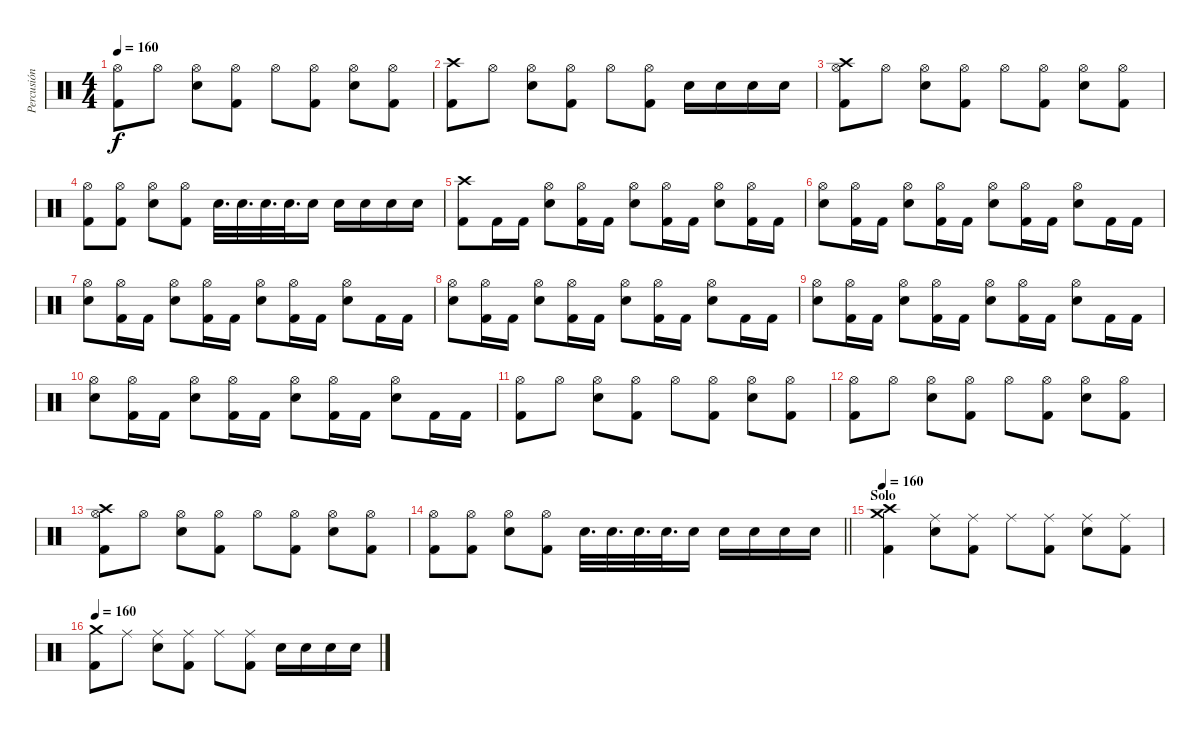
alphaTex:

\track ("Percusión" "Percusión") {instrument percussion}
\staff {score}
\articulation defaults
\ts (4 4)
\tempo 160
\clef neutral
\ks c
("Hi-Hat (open)" "Kick (hit) 2").8{dy f} "Hi-Hat (open)".8 ("Hi-Hat (open)" "Snare (hit) 2").8 ("Hi-Hat (open)" "Kick (hit) 2").8 "Hi-Hat (open)".8 ("Hi-Hat (open)" "Kick (hit) 2").8 ("Hi-Hat (open)" "Snare (hit) 2").8 ("Hi-Hat (open)" "Kick (hit) 2").8 |
("Crash high (hit)" "Kick (hit) 2").8 "Hi-Hat (open)".8 ("Hi-Hat (open)" "Snare (hit) 2").8 ("Hi-Hat (open)" "Kick (hit) 2").8 "Hi-Hat (open)".8 ("Hi-Hat (open)" "Kick (hit) 2").8 "Snare (hit) 2".16 "Snare (hit) 2".16 "Snare (hit) 2".16 "Snare (hit) 2".16 |
("Crash high (hit)" "Hi-Hat (open)" "Kick (hit) 2").8 "Hi-Hat (open)".8 ("Hi-Hat (open)" "Snare (hit) 2").8 ("Hi-Hat (open)" "Kick (hit) 2").8 "Hi-Hat (open)".8 ("Hi-Hat (open)" "Kick (hit) 2").8 ("Hi-Hat (open)" "Snare (hit) 2").8 ("Hi-Hat (open)" "Kick (hit) 2").8 |
("Hi-Hat (open)" "Kick (hit) 2").8 ("Hi-Hat (open)" "Kick (hit) 2").8 ("Hi-Hat (open)" "Snare (hit) 2").8 ("Hi-Hat (open)" "Kick (hit) 2").8 "Snare (hit) 2".32{d} "Snare (hit) 2".32{d} "Snare (hit) 2".32{d} "Snare (hit) 2".32{d} "Snare (hit) 2".16 "Snare (hit) 2".16 "Snare (hit) 2".16 "Snare (hit) 2".16 "Snare (hit) 2".16 |
("Crash high (hit)" "Kick (hit) 2").8 "Kick (hit) 2".16 "Kick (hit) 2".16 ("Hi-Hat (open)" "Snare (hit) 2").8 ("Hi-Hat (open)" "Kick (hit) 2").16 "Kick (hit) 2".16 ("Hi-Hat (open)" "Snare (hit) 2").8 ("Hi-Hat (open)" "Kick (hit) 2").16 "Kick (hit) 2".16 ("Hi-Hat (open)" "Snare (hit) 2").8 ("Hi-Hat (open)" "Kick (hit) 2").16 "Kick (hit) 2".16 |
("Hi-Hat (open)" "Snare (hit) 2").8 ("Hi-Hat (open)" "Kick (hit) 2").16 "Kick (hit) 2".16 ("Hi-Hat (open)" "Snare (hit) 2").8 ("Hi-Hat (open)" "Kick (hit) 2").16 "Kick (hit) 2".16 ("Hi-Hat (open)" "Snare (hit) 2").8 ("Hi-Hat (open)" "Kick (hit) 2").16 "Kick (hit) 2".16 ("Hi-Hat (open)" "Snare (hit) 2").8 "Kick (hit) 2".16 "Kick (hit) 2".16 |
("Hi-Hat (open)" "Snare (hit) 2").8 ("Hi-Hat (open)" "Kick (hit) 2").16 "Kick (hit) 2".16 ("Hi-Hat (open)" "Snare (hit) 2").8 ("Hi-Hat (open)" "Kick (hit) 2").16 "Kick (hit) 2".16 ("Hi-Hat (open)" "Snare (hit) 2").8 ("Hi-Hat (open)" "Kick (hit) 2").16 "Kick (hit) 2".16 ("Hi-Hat (open)" "Snare (hit) 2").8 "Kick (hit) 2".16 "Kick (hit) 2".16 |
("Hi-Hat (open)" "Snare (hit) 2").8 ("Hi-Hat (open)" "Kick (hit) 2").16 "Kick (hit) 2".16 ("Hi-Hat (open)" "Snare (hit) 2").8 ("Hi-Hat (open)" "Kick (hit) 2").16 "Kick (hit) 2".16 ("Hi-Hat (open)" "Snare (hit) 2").8 ("Hi-Hat (open)" "Kick (hit) 2").16 "Kick (hit) 2".16 ("Hi-Hat (open)" "Snare (hit) 2").8 "Kick (hit) 2".16 "Kick (hit) 2".16 |
("Hi-Hat (open)" "Snare (hit) 2").8 ("Hi-Hat (open)" "Kick (hit) 2").16 "Kick (hit) 2".16 ("Hi-Hat (open)" "Snare (hit) 2").8 ("Hi-Hat (open)" "Kick (hit) 2").16 "Kick (hit) 2".16 ("Hi-Hat (open)" "Snare (hit) 2").8 ("Hi-Hat (open)" "Kick (hit) 2").16 "Kick (hit) 2".16 ("Hi-Hat (open)" "Snare (hit) 2").8 "Kick (hit) 2".16 "Kick (hit) 2".16 |
("Hi-Hat (open)" "Snare (hit) 2").8 ("Hi-Hat (open)" "Kick (hit) 2").16 "Kick (hit) 2".16 ("Hi-Hat (open)" "Snare (hit) 2").8 ("Hi-Hat (open)" "Kick (hit) 2").16 "Kick (hit) 2".16 ("Hi-Hat (open)" "Snare (hit) 2").8 ("Hi-Hat (open)" "Kick (hit) 2").16 "Kick (hit) 2".16 ("Hi-Hat (open)" "Snare (hit) 2").8 "Kick (hit) 2".16 "Kick (hit) 2".16 |
("Hi-Hat (open)" "Kick (hit) 2").8 "Hi-Hat (open)".8 ("Hi-Hat (open)" "Snare (hit) 2").8 ("Hi-Hat (open)" "Kick (hit) 2").8 "Hi-Hat (open)".8 ("Hi-Hat (open)" "Kick (hit) 2").8 ("Hi-Hat (open)" "Snare (hit) 2").8 ("Hi-Hat (open)" "Kick (hit) 2").8 |
("Hi-Hat (open)" "Kick (hit) 2").8 "Hi-Hat (open)".8 ("Hi-Hat (open)" "Snare (hit) 2").8 ("Hi-Hat (open)" "Kick (hit) 2").8 "Hi-Hat (open)".8 ("Hi-Hat (open)" "Kick (hit) 2").8 ("Hi-Hat (open)" "Snare (hit) 2").8 ("Hi-Hat (open)" "Kick (hit) 2").8 |
("Crash high (hit)" "Hi-Hat (open)" "Kick (hit) 2").8 "Hi-Hat (open)".8 ("Hi-Hat (open)" "Snare (hit) 2").8 ("Hi-Hat (open)" "Kick (hit) 2").8 "Hi-Hat (open)".8 ("Hi-Hat (open)" "Kick (hit) 2").8 ("Hi-Hat (open)" "Snare (hit) 2").8 ("Hi-Hat (open)" "Kick (hit) 2").8 |
\barLineRight lightlight
("Hi-Hat (open)" "Kick (hit) 2").8 ("Hi-Hat (open)" "Kick (hit) 2").8 ("Hi-Hat (open)" "Snare (hit) 2").8 ("Hi-Hat (open)" "Kick (hit) 2").8 "Snare (hit) 2".32{d} "Snare (hit) 2".32{d} "Snare (hit) 2".32{d} "Snare (hit) 2".32{d} "Snare (hit) 2".16 "Snare (hit) 2".16 "Snare (hit) 2".16 "Snare (hit) 2".16 "Snare (hit) 2".16 |
\section ("" "Solo")
\tempo 160
("Crash high (hit)" "Crash medium (hit)" "Kick (hit) 2").4 ("Ride (middle)" "Snare (hit) 2").8 ("Ride (middle)" "Kick (hit) 2").8 "Ride (middle)".8 ("Ride (middle)" "Kick (hit) 2").8 ("Ride (middle)" "Snare (hit) 2").8 ("Ride (middle)" "Kick (hit) 2").8 |
\tempo 160
("Crash medium (hit)" "Kick (hit) 2").8 "Ride (middle)".8 ("Ride (middle)" "Snare (hit) 2").8 ("Ride (middle)" "Kick (hit) 2").8 "Ride (middle)".8 ("Ride (middle)" "Kick (hit) 2").8 "Snare (hit) 2".16 "Snare (hit) 2".16 "Snare (hit) 2".16 "Snare (hit) 2".16
